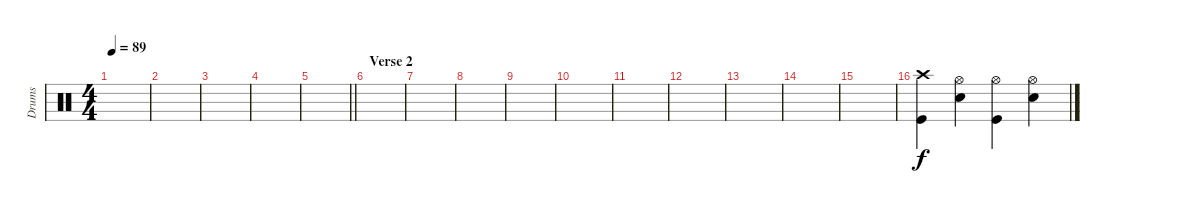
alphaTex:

\track ("Drums" "Drums") {instrument percussion}
\staff {score}
\articulation defaults
\ts (4 4)
\tempo 89
\clef neutral
\ks c
|
|
|
|
\barLineRight lightlight
|
\section ("" "Verse 2")
|
|
|
|
|
|
|
|
|
|
("Crash high (hit)" "Kick (hit)").4 ("Hi-Hat (open)" "Snare (hit) 2").4 ("Hi-Hat (open)" "Kick (hit)").4 ("Hi-Hat (open)" "Snare (hit) 2").4
